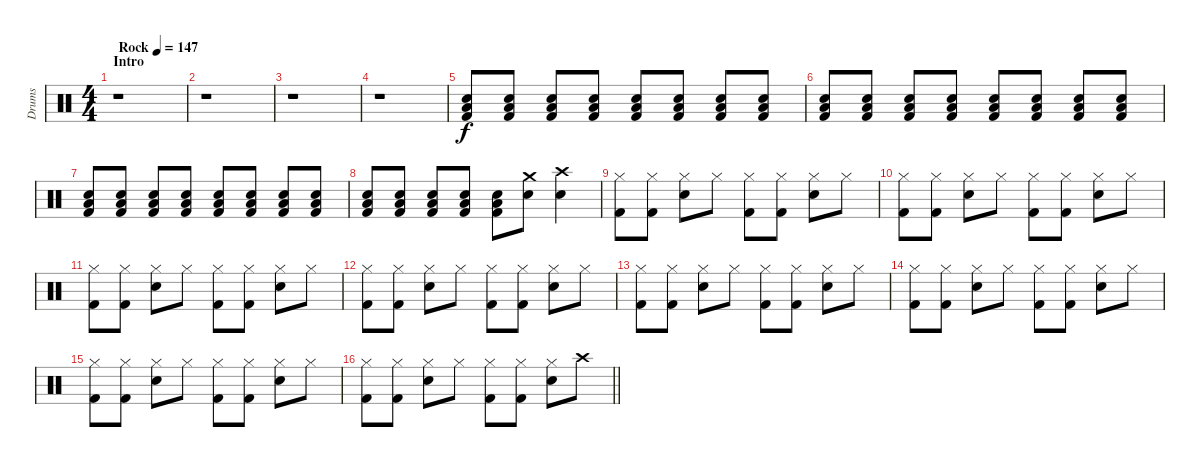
\track ("Drums" "Drums") {instrument percussion}
\staff {score}
\articulation defaults
\ts (4 4)
\section ("" "Intro")
\tempo (147 "Rock")
\clef neutral
\ks c
r.1{dy f} |
r.1 |
r.1 |
r.1 |
("Snare (hit) 2" "Low Floor Tom (hit)" "Kick (hit) 2").8 ("Snare (hit) 2" "Low Floor Tom (hit)" "Kick (hit) 2").8 ("Snare (hit) 2" "Low Floor Tom (hit)" "Kick (hit) 2").8 ("Snare (hit) 2" "Low Floor Tom (hit)" "Kick (hit) 2").8 ("Snare (hit) 2" "Low Floor Tom (hit)" "Kick (hit) 2").8 ("Snare (hit) 2" "Low Floor Tom (hit)" "Kick (hit) 2").8 ("Snare (hit) 2" "Low Floor Tom (hit)" "Kick (hit) 2").8 ("Snare (hit) 2" "Low Floor Tom (hit)" "Kick (hit) 2").8 |
("Snare (hit) 2" "Low Floor Tom (hit)" "Kick (hit) 2").8 ("Snare (hit) 2" "Low Floor Tom (hit)" "Kick (hit) 2").8 ("Snare (hit) 2" "Low Floor Tom (hit)" "Kick (hit) 2").8 ("Snare (hit) 2" "Low Floor Tom (hit)" "Kick (hit) 2").8 ("Snare (hit) 2" "Low Floor Tom (hit)" "Kick (hit) 2").8 ("Snare (hit) 2" "Low Floor Tom (hit)" "Kick (hit) 2").8 ("Snare (hit) 2" "Low Floor Tom (hit)" "Kick (hit) 2").8 ("Snare (hit) 2" "Low Floor Tom (hit)" "Kick (hit) 2").8 |
("Snare (hit) 2" "Low Floor Tom (hit)" "Kick (hit) 2").8 ("Snare (hit) 2" "Low Floor Tom (hit)" "Kick (hit) 2").8 ("Snare (hit) 2" "Low Floor Tom (hit)" "Kick (hit) 2").8 ("Snare (hit) 2" "Low Floor Tom (hit)" "Kick (hit) 2").8 ("Snare (hit) 2" "Low Floor Tom (hit)" "Kick (hit) 2").8 ("Snare (hit) 2" "Low Floor Tom (hit)" "Kick (hit) 2").8 ("Snare (hit) 2" "Low Floor Tom (hit)" "Kick (hit) 2").8 ("Snare (hit) 2" "Low Floor Tom (hit)" "Kick (hit) 2").8 |
("Snare (hit) 2" "Low Floor Tom (hit)" "Kick (hit) 2").8 ("Snare (hit) 2" "Low Floor Tom (hit)" "Kick (hit) 2").8 ("Snare (hit) 2" "Low Floor Tom (hit)" "Kick (hit) 2").8 ("Snare (hit) 2" "Low Floor Tom (hit)" "Kick (hit) 2").8 ("Snare (hit) 2" "Low Floor Tom (hit)" "Kick (hit) 2").8 ("Snare (hit) 2" "Crash medium (hit)").8 ("Snare (hit) 2" "Crash high (hit)").4 |
("Hi-Hat (closed)" "Kick (hit) 2").8 ("Hi-Hat (closed)" "Kick (hit) 2").8 ("Hi-Hat (closed)" "Snare (hit) 2").8 "Hi-Hat (closed)".8 ("Hi-Hat (closed)" "Kick (hit) 2").8 ("Hi-Hat (closed)" "Kick (hit) 2").8 ("Hi-Hat (closed)" "Snare (hit) 2").8 "Hi-Hat (closed)".8 |
("Hi-Hat (closed)" "Kick (hit) 2").8 ("Hi-Hat (closed)" "Kick (hit) 2").8 ("Hi-Hat (closed)" "Snare (hit) 2").8 "Hi-Hat (closed)".8 ("Hi-Hat (closed)" "Kick (hit) 2").8 ("Hi-Hat (closed)" "Kick (hit) 2").8 ("Hi-Hat (closed)" "Snare (hit) 2").8 "Hi-Hat (closed)".8 |
("Hi-Hat (closed)" "Kick (hit) 2").8 ("Hi-Hat (closed)" "Kick (hit) 2").8 ("Hi-Hat (closed)" "Snare (hit) 2").8 "Hi-Hat (closed)".8 ("Hi-Hat (closed)" "Kick (hit) 2").8 ("Hi-Hat (closed)" "Kick (hit) 2").8 ("Hi-Hat (closed)" "Snare (hit) 2").8 "Hi-Hat (closed)".8 |
("Hi-Hat (closed)" "Kick (hit) 2").8 ("Hi-Hat (closed)" "Kick (hit) 2").8 ("Hi-Hat (closed)" "Snare (hit) 2").8 "Hi-Hat (closed)".8 ("Hi-Hat (closed)" "Kick (hit) 2").8 ("Hi-Hat (closed)" "Kick (hit) 2").8 ("Hi-Hat (closed)" "Snare (hit) 2").8 "Hi-Hat (closed)".8 |
("Hi-Hat (closed)" "Kick (hit) 2").8 ("Hi-Hat (closed)" "Kick (hit) 2").8 ("Hi-Hat (closed)" "Snare (hit) 2").8 "Hi-Hat (closed)".8 ("Hi-Hat (closed)" "Kick (hit) 2").8 ("Hi-Hat (closed)" "Kick (hit) 2").8 ("Hi-Hat (closed)" "Snare (hit) 2").8 "Hi-Hat (closed)".8 |
("Hi-Hat (closed)" "Kick (hit) 2").8 ("Hi-Hat (closed)" "Kick (hit) 2").8 ("Hi-Hat (closed)" "Snare (hit) 2").8 "Hi-Hat (closed)".8 ("Hi-Hat (closed)" "Kick (hit) 2").8 ("Hi-Hat (closed)" "Kick (hit) 2").8 ("Hi-Hat (closed)" "Snare (hit) 2").8 "Hi-Hat (closed)".8 |
("Hi-Hat (closed)" "Kick (hit) 2").8 ("Hi-Hat (closed)" "Kick (hit) 2").8 ("Hi-Hat (closed)" "Snare (hit) 2").8 "Hi-Hat (closed)".8 ("Hi-Hat (closed)" "Kick (hit) 2").8 ("Hi-Hat (closed)" "Kick (hit) 2").8 ("Hi-Hat (closed)" "Snare (hit) 2").8 "Hi-Hat (closed)".8 |
\barLineRight lightlight
("Hi-Hat (closed)" "Kick (hit) 2").8 ("Hi-Hat (closed)" "Kick (hit) 2").8 ("Hi-Hat (closed)" "Snare (hit) 2").8 "Hi-Hat (closed)".8 ("Hi-Hat (closed)" "Kick (hit) 2").8 ("Hi-Hat (closed)" "Kick (hit) 2").8 ("Hi-Hat (closed)" "Snare (hit) 2").8 "Crash high (hit)".8
